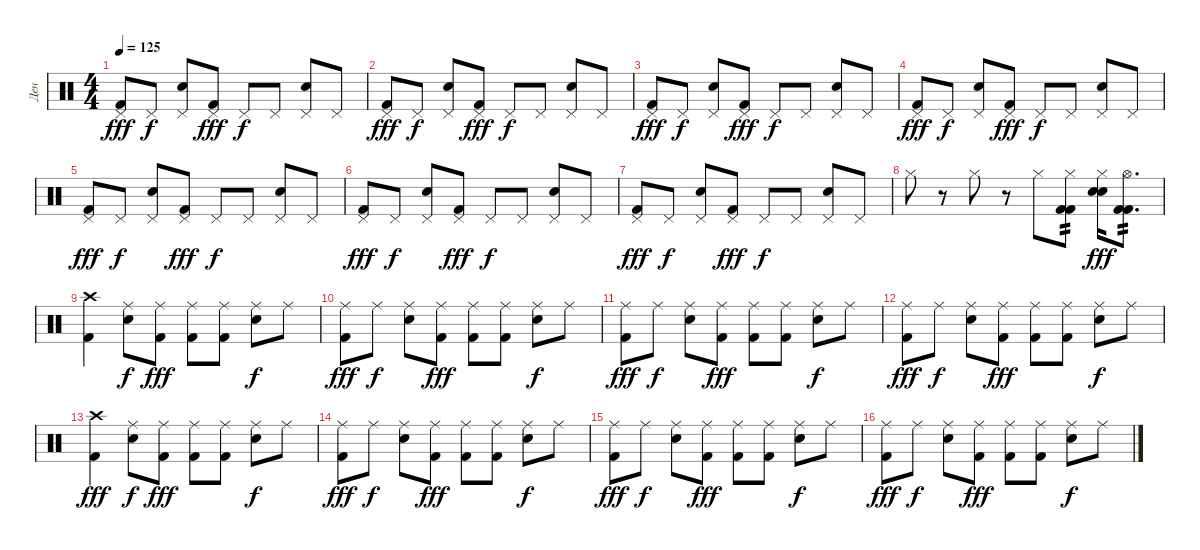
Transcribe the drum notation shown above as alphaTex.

\track ("Ден" "Ден") {instrument percussion}
\staff {score}
\articulation defaults
\ts (4 4)
\tempo 125
\clef neutral
\ks c
("Kick (hit) 2" "Pedal Hi-Hat (hit)").8{dy fff} "Pedal Hi-Hat (hit)".8{dy f} ("Electric Snare (hit)" "Pedal Hi-Hat (hit)").8 ("Kick (hit) 2" "Pedal Hi-Hat (hit)").8{dy fff} "Pedal Hi-Hat (hit)".8{dy f} "Pedal Hi-Hat (hit)".8 ("Electric Snare (hit)" "Pedal Hi-Hat (hit)").8 "Pedal Hi-Hat (hit)".8 |
("Kick (hit) 2" "Pedal Hi-Hat (hit)").8{dy fff} "Pedal Hi-Hat (hit)".8{dy f} ("Electric Snare (hit)" "Pedal Hi-Hat (hit)").8 ("Kick (hit) 2" "Pedal Hi-Hat (hit)").8{dy fff} "Pedal Hi-Hat (hit)".8{dy f} "Pedal Hi-Hat (hit)".8 ("Electric Snare (hit)" "Pedal Hi-Hat (hit)").8 "Pedal Hi-Hat (hit)".8 |
("Kick (hit) 2" "Pedal Hi-Hat (hit)").8{dy fff} "Pedal Hi-Hat (hit)".8{dy f} ("Electric Snare (hit)" "Pedal Hi-Hat (hit)").8 ("Kick (hit) 2" "Pedal Hi-Hat (hit)").8{dy fff} "Pedal Hi-Hat (hit)".8{dy f} "Pedal Hi-Hat (hit)".8 ("Electric Snare (hit)" "Pedal Hi-Hat (hit)").8 "Pedal Hi-Hat (hit)".8 |
("Kick (hit) 2" "Pedal Hi-Hat (hit)").8{dy fff} "Pedal Hi-Hat (hit)".8{dy f} ("Electric Snare (hit)" "Pedal Hi-Hat (hit)").8 ("Kick (hit) 2" "Pedal Hi-Hat (hit)").8{dy fff} "Pedal Hi-Hat (hit)".8{dy f} "Pedal Hi-Hat (hit)".8 ("Electric Snare (hit)" "Pedal Hi-Hat (hit)").8 "Pedal Hi-Hat (hit)".8 |
("Kick (hit) 2" "Pedal Hi-Hat (hit)").8{dy fff} "Pedal Hi-Hat (hit)".8{dy f} ("Electric Snare (hit)" "Pedal Hi-Hat (hit)").8 ("Kick (hit) 2" "Pedal Hi-Hat (hit)").8{dy fff} "Pedal Hi-Hat (hit)".8{dy f} "Pedal Hi-Hat (hit)".8 ("Electric Snare (hit)" "Pedal Hi-Hat (hit)").8 "Pedal Hi-Hat (hit)".8 |
("Kick (hit) 2" "Pedal Hi-Hat (hit)").8{dy fff} "Pedal Hi-Hat (hit)".8{dy f} ("Electric Snare (hit)" "Pedal Hi-Hat (hit)").8 ("Kick (hit) 2" "Pedal Hi-Hat (hit)").8{dy fff} "Pedal Hi-Hat (hit)".8{dy f} "Pedal Hi-Hat (hit)".8 ("Electric Snare (hit)" "Pedal Hi-Hat (hit)").8 "Pedal Hi-Hat (hit)".8 |
("Kick (hit) 2" "Pedal Hi-Hat (hit)").8{dy fff} "Pedal Hi-Hat (hit)".8{dy f} ("Electric Snare (hit)" "Pedal Hi-Hat (hit)").8 ("Kick (hit) 2" "Pedal Hi-Hat (hit)").8{dy fff} "Pedal Hi-Hat (hit)".8{dy f} "Pedal Hi-Hat (hit)".8 ("Electric Snare (hit)" "Pedal Hi-Hat (hit)").8 "Pedal Hi-Hat (hit)".8 |
"Hi-Hat (closed)".8 r.8 "Hi-Hat (closed)".8 r.8 "Hi-Hat (closed)".8 ("Hi-Hat (closed)" "Kick (hit) 2" "Kick (hit) 2").8{tp 2} ("Hi-Hat (closed)" "Electric Snare (hit)" "Electric Snare (hit)").16{dy fff} ("Hi-Hat (open)" "Kick (hit) 2" "Kick (hit) 2").8{d tp 2} |
("Kick (hit) 2" "Crash high (hit)").4 ("Electric Snare (hit)" "Ride (middle)").8{dy f} ("Kick (hit) 2" "Ride (middle)").8{dy fff} ("Kick (hit) 2" "Ride (middle)").8 ("Kick (hit) 2" "Ride (middle)").8 ("Electric Snare (hit)" "Ride (middle)").8{dy f} "Ride (middle)".8 |
("Kick (hit) 2" "Ride (middle)").8{dy fff} "Ride (middle)".8{dy f} ("Electric Snare (hit)" "Ride (middle)").8 ("Kick (hit) 2" "Ride (middle)").8{dy fff} ("Kick (hit) 2" "Ride (middle)").8 ("Kick (hit) 2" "Ride (middle)").8 ("Electric Snare (hit)" "Ride (middle)").8{dy f} "Ride (middle)".8 |
("Kick (hit) 2" "Ride (middle)").8{dy fff} "Ride (middle)".8{dy f} ("Electric Snare (hit)" "Ride (middle)").8 ("Kick (hit) 2" "Ride (middle)").8{dy fff} ("Kick (hit) 2" "Ride (middle)").8 ("Kick (hit) 2" "Ride (middle)").8 ("Electric Snare (hit)" "Ride (middle)").8{dy f} "Ride (middle)".8 |
("Kick (hit) 2" "Ride (middle)").8{dy fff} "Ride (middle)".8{dy f} ("Electric Snare (hit)" "Ride (middle)").8 ("Kick (hit) 2" "Ride (middle)").8{dy fff} ("Kick (hit) 2" "Ride (middle)").8 ("Kick (hit) 2" "Ride (middle)").8 ("Electric Snare (hit)" "Ride (middle)").8{dy f} "Ride (middle)".8 |
("Kick (hit) 2" "Crash high (hit)").4{dy fff} ("Electric Snare (hit)" "Ride (middle)").8{dy f} ("Kick (hit) 2" "Ride (middle)").8{dy fff} ("Kick (hit) 2" "Ride (middle)").8 ("Kick (hit) 2" "Ride (middle)").8 ("Electric Snare (hit)" "Ride (middle)").8{dy f} "Ride (middle)".8 |
("Kick (hit) 2" "Ride (middle)").8{dy fff} "Ride (middle)".8{dy f} ("Electric Snare (hit)" "Ride (middle)").8 ("Kick (hit) 2" "Ride (middle)").8{dy fff} ("Kick (hit) 2" "Ride (middle)").8 ("Kick (hit) 2" "Ride (middle)").8 ("Electric Snare (hit)" "Ride (middle)").8{dy f} "Ride (middle)".8 |
("Kick (hit) 2" "Ride (middle)").8{dy fff} "Ride (middle)".8{dy f} ("Electric Snare (hit)" "Ride (middle)").8 ("Kick (hit) 2" "Ride (middle)").8{dy fff} ("Kick (hit) 2" "Ride (middle)").8 ("Kick (hit) 2" "Ride (middle)").8 ("Electric Snare (hit)" "Ride (middle)").8{dy f} "Ride (middle)".8 |
("Kick (hit) 2" "Ride (middle)").8{dy fff} "Ride (middle)".8{dy f} ("Electric Snare (hit)" "Ride (middle)").8 ("Kick (hit) 2" "Ride (middle)").8{dy fff} ("Kick (hit) 2" "Ride (middle)").8 ("Kick (hit) 2" "Ride (middle)").8 ("Electric Snare (hit)" "Ride (middle)").8{dy f} "Ride (middle)".8
